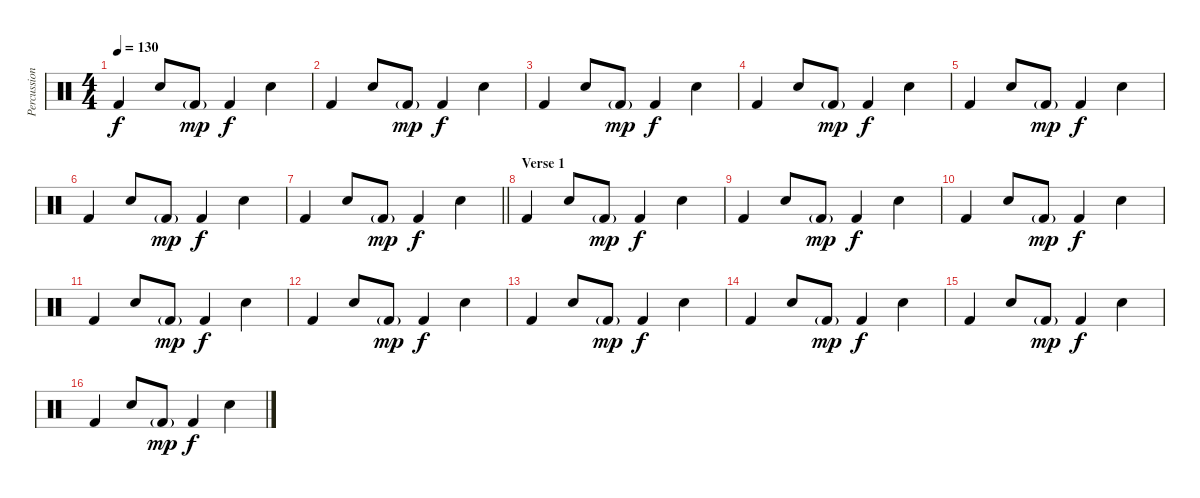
\track ("Percussion" "Percussion") {instrument percussion}
\staff {score}
\articulation defaults
\ts (4 4)
\tempo 130
\clef neutral
\ks c "Kick (hit) 2".4{dy f} "Snare (hit) 2".8 "Kick (hit) 2"{g}.8{dy mp} "Kick (hit) 2".4{dy f} "Snare (hit) 2".4
|
"Kick (hit) 2".4 "Snare (hit) 2".8 "Kick (hit) 2"{g}.8{dy mp} "Kick (hit) 2".4{dy f} "Snare (hit) 2".4 |
"Kick (hit) 2".4 "Snare (hit) 2".8 "Kick (hit) 2"{g}.8{dy mp} "Kick (hit) 2".4{dy f} "Snare (hit) 2".4 |
"Kick (hit) 2".4 "Snare (hit) 2".8 "Kick (hit) 2"{g}.8{dy mp} "Kick (hit) 2".4{dy f} "Snare (hit) 2".4 |
"Kick (hit) 2".4 "Snare (hit) 2".8 "Kick (hit) 2"{g}.8{dy mp} "Kick (hit) 2".4{dy f} "Snare (hit) 2".4 |
"Kick (hit) 2".4 "Snare (hit) 2".8 "Kick (hit) 2"{g}.8{dy mp} "Kick (hit) 2".4{dy f} "Snare (hit) 2".4 |
\barLineRight lightlight "Kick (hit) 2".4 "Snare (hit) 2".8 "Kick (hit) 2"{g}.8{dy mp} "Kick (hit) 2".4{dy f} "Snare (hit) 2".4
|
\section ("" "Verse 1")
"Kick (hit) 2".4 "Snare (hit) 2".8 "Kick (hit) 2"{g}.8{dy mp} "Kick (hit) 2".4{dy f} "Snare (hit) 2".4 |
"Kick (hit) 2".4 "Snare (hit) 2".8 "Kick (hit) 2"{g}.8{dy mp} "Kick (hit) 2".4{dy f} "Snare (hit) 2".4 |
"Kick (hit) 2".4 "Snare (hit) 2".8 "Kick (hit) 2"{g}.8{dy mp} "Kick (hit) 2".4{dy f} "Snare (hit) 2".4 |
"Kick (hit) 2".4 "Snare (hit) 2".8 "Kick (hit) 2"{g}.8{dy mp} "Kick (hit) 2".4{dy f} "Snare (hit) 2".4 |
"Kick (hit) 2".4 "Snare (hit) 2".8 "Kick (hit) 2"{g}.8{dy mp} "Kick (hit) 2".4{dy f} "Snare (hit) 2".4 |
"Kick (hit) 2".4 "Snare (hit) 2".8 "Kick (hit) 2"{g}.8{dy mp} "Kick (hit) 2".4{dy f} "Snare (hit) 2".4 |
"Kick (hit) 2".4 "Snare (hit) 2".8 "Kick (hit) 2"{g}.8{dy mp} "Kick (hit) 2".4{dy f} "Snare (hit) 2".4 |
"Kick (hit) 2".4 "Snare (hit) 2".8 "Kick (hit) 2"{g}.8{dy mp} "Kick (hit) 2".4{dy f} "Snare (hit) 2".4 |
"Kick (hit) 2".4 "Snare (hit) 2".8 "Kick (hit) 2"{g}.8{dy mp} "Kick (hit) 2".4{dy f} "Snare (hit) 2".4
